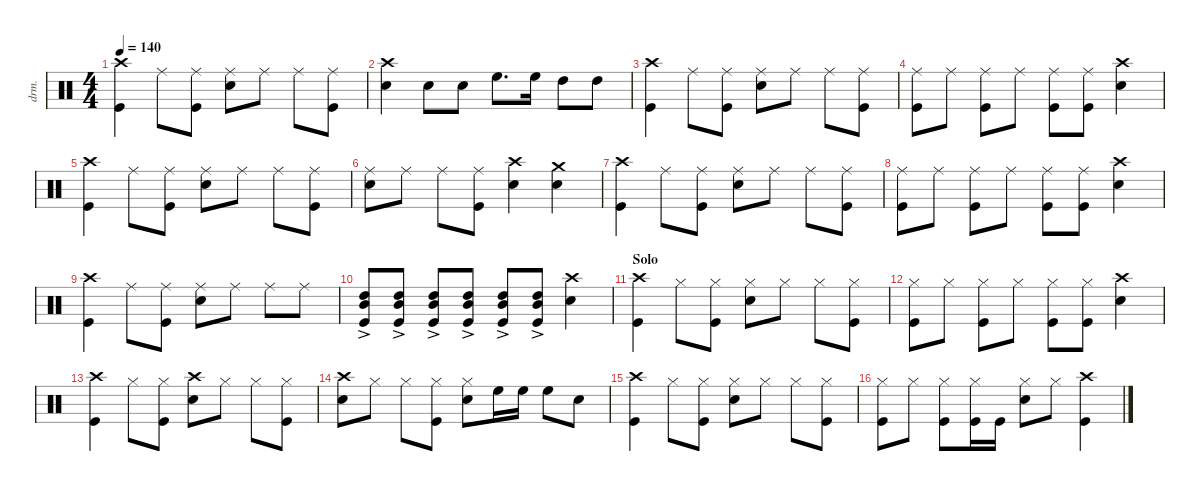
\defaultSystemsLayout 4
\hideDynamics
\bracketExtendMode nobrackets
\otherSystemsTrackNameOrientation horizontal
\track ("Drums" "drm.") {multiBarRest instrument percussion}
\staff
\articulation defaults
\ts (4 4)
\tempo 140
\clef neutral
\ks c
("Crash high (hit)" "Kick (hit)").4{dy f} "Ride (middle)".8 ("Ride (middle)" "Kick (hit)").8 ("Snare (hit) 2" "Ride (middle)").8 "Ride (middle)".8 "Ride (middle)".8 ("Ride (middle)" "Kick (hit)").8 |
("Crash high (hit)" "Snare (hit) 2").4 "Snare (hit) 2".8 "Snare (hit) 2".8 "High Floor Tom (hit)".8{d dy ff} "High Floor Tom (hit)".16 "High Tom (hit)".8 "High Tom (hit)".8 |
("Crash high (hit)" "Kick (hit)").4{dy f} "Ride (middle)".8 ("Ride (middle)" "Kick (hit)").8 ("Snare (hit) 2" "Ride (middle)").8 "Ride (middle)".8 "Ride (middle)".8 ("Ride (middle)" "Kick (hit)").8 |
("Ride (middle)" "Kick (hit)").8 "Ride (middle)".8 ("Ride (middle)" "Kick (hit)").8 "Ride (middle)".8 ("Ride (middle)" "Kick (hit)").8 ("Ride (middle)" "Kick (hit)").8 ("Snare (hit) 2" "Crash high (hit)").4 |
("Crash high (hit)" "Kick (hit)").4 "Ride (middle)".8 ("Ride (middle)" "Kick (hit)").8 ("Snare (hit) 2" "Ride (middle)").8 "Ride (middle)".8 "Ride (middle)".8 ("Ride (middle)" "Kick (hit)").8 |
("Snare (hit) 2" "Ride (middle)").8 "Ride (middle)".8 "Ride (middle)".8 ("Ride (middle)" "Kick (hit)").8 ("Snare (hit) 2" "Crash high (hit)").4 ("Snare (hit) 2" "Crash medium (hit)").4 |
("Crash high (hit)" "Kick (hit)").4 "Ride (middle)".8 ("Ride (middle)" "Kick (hit)").8 ("Snare (hit) 2" "Ride (middle)").8 "Ride (middle)".8 "Ride (middle)".8 ("Ride (middle)" "Kick (hit)").8 |
("Ride (middle)" "Kick (hit)").8 "Ride (middle)".8 ("Ride (middle)" "Kick (hit)").8 "Ride (middle)".8 ("Ride (middle)" "Kick (hit)").8 ("Ride (middle)" "Kick (hit)").8 ("Snare (hit) 2" "Crash high (hit)").4 |
("Crash high (hit)" "Kick (hit)").4 "Ride (middle)".8 ("Ride (middle)" "Kick (hit)").8 ("Snare (hit) 2" "Ride (middle)").8 "Ride (middle)".8 "Ride (middle)".8 "Ride (middle)".8 |
("High Tom (hit)"{ac} "Mid Tom (hit)"{ac} "Kick (hit)").8 ("High Tom (hit)"{ac} "Mid Tom (hit)"{ac} "Kick (hit)").8 ("High Tom (hit)"{ac} "Mid Tom (hit)"{ac} "Kick (hit)").8 ("High Tom (hit)"{ac} "Mid Tom (hit)"{ac} "Kick (hit)").8 ("High Tom (hit)"{ac} "Mid Tom (hit)"{ac} "Kick (hit)").8 ("High Tom (hit)"{ac} "Mid Tom (hit)"{ac} "Kick (hit)").8 ("Snare (hit) 2" "Crash high (hit)").4 |
\section ("" "Solo")
("Crash high (hit)" "Kick (hit)").4 "Hi-Hat (closed)".8 ("Hi-Hat (closed)" "Kick (hit)").8 ("Snare (hit) 2" "Hi-Hat (closed)").8 "Hi-Hat (closed)".8 "Hi-Hat (closed)".8 ("Hi-Hat (closed)" "Kick (hit)").8 |
("Hi-Hat (closed)" "Kick (hit)").8 "Hi-Hat (closed)".8 ("Hi-Hat (closed)" "Kick (hit)").8 "Hi-Hat (closed)".8 ("Hi-Hat (closed)" "Kick (hit)").8 ("Hi-Hat (closed)" "Kick (hit)").8 ("Snare (hit) 2" "Crash high (hit)").4 |
("Crash high (hit)" "Kick (hit)").4 "Hi-Hat (closed)".8 ("Hi-Hat (closed)" "Kick (hit)").8 ("Snare (hit) 2" "Crash high (hit)").8 "Hi-Hat (closed)".8 "Hi-Hat (closed)".8 ("Hi-Hat (closed)" "Kick (hit)").8 |
("Snare (hit) 2" "Crash high (hit)").8 "Hi-Hat (closed)".8 "Hi-Hat (closed)".8 ("Hi-Hat (closed)" "Kick (hit)").8 ("Hi-Hat (closed)" "Snare (hit) 2").8 "High Floor Tom (hit)".16{dy ff} "High Floor Tom (hit)".16 "High Floor Tom (hit)".8 "Snare (hit) 2".8{dy f} |
("Crash high (hit)" "Kick (hit)").4 "Hi-Hat (closed)".8 ("Hi-Hat (closed)" "Kick (hit)").8 ("Snare (hit) 2" "Hi-Hat (closed)").8 "Hi-Hat (closed)".8 "Hi-Hat (closed)".8 ("Hi-Hat (closed)" "Kick (hit)").8 |
("Kick (hit)" "Hi-Hat (closed)").8 "Hi-Hat (closed)".8 ("Hi-Hat (closed)" "Kick (hit)").8 ("Hi-Hat (closed)" "Kick (hit)").16 "Kick (hit)".16 ("Snare (hit) 2" "Hi-Hat (closed)").8 "Hi-Hat (closed)".8 ("Kick (hit)" "Crash high (hit)").4
